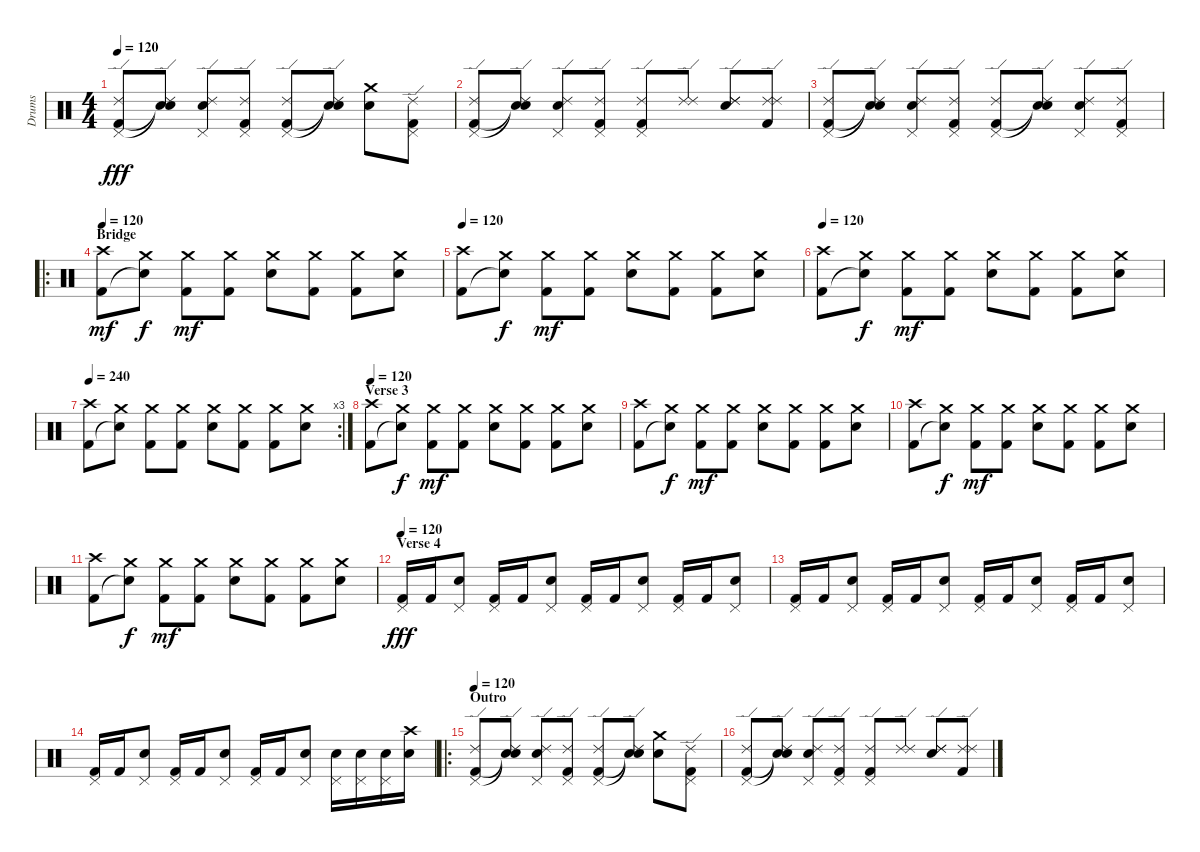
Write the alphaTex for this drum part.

\track ("Drums" "Drums") {instrument percussion}
\staff {score}
\articulation defaults
\ts (4 4)
\tempo 120
\clef neutral
\ks c
("Kick (hit) 2" "Pedal Hi-Hat (hit)" "Ride (edge) 2").8{dy fff} ("Snare (hit) 2"{t} "Snare (hit)"{t} "Ride (edge) 2").8 ("Snare (hit) 2" "Pedal Hi-Hat (hit)" "Ride (edge) 2").8 ("Kick (hit) 2" "Pedal Hi-Hat (hit)" "Ride (edge) 2").8 ("Kick (hit) 2" "Pedal Hi-Hat (hit)" "Ride (edge) 2").8 ("Snare (hit) 2"{t} "Snare (hit)"{t} "Ride (edge) 2").8 ("Snare (hit) 2" "Crash medium (hit)").8 ("Kick (hit) 2" "Pedal Hi-Hat (hit)" "Ride (edge) 2").8 |
("Kick (hit) 2" "Pedal Hi-Hat (hit)" "Ride (edge) 2").8 ("Snare (hit) 2"{t} "Snare (hit)"{t} "Ride (edge) 2").8 ("Snare (hit) 2" "Pedal Hi-Hat (hit)" "Ride (edge) 2").8 ("Kick (hit) 2" "Pedal Hi-Hat (hit)" "Ride (edge) 2").8 ("Kick (hit) 2" "Pedal Hi-Hat (hit)" "Ride (edge) 2").8 ("Ride (edge) 2" "Ride (edge) 2").8 ("Snare (hit) 2" "Ride (edge) 2" "Ride (edge) 2").8 ("Kick (hit) 2" "Ride (edge) 2" "Ride (edge) 2").8 |
("Kick (hit) 2" "Pedal Hi-Hat (hit)" "Ride (edge) 2").8 ("Snare (hit) 2"{t} "Snare (hit)"{t} "Ride (edge) 2").8 ("Snare (hit) 2" "Pedal Hi-Hat (hit)" "Ride (edge) 2").8 ("Kick (hit) 2" "Pedal Hi-Hat (hit)" "Ride (edge) 2").8 ("Kick (hit) 2" "Pedal Hi-Hat (hit)" "Ride (edge) 2").8 ("Snare (hit) 2"{t} "Snare (hit)"{t} "Ride (edge) 2").8 ("Snare (hit) 2" "Pedal Hi-Hat (hit)" "Ride (edge) 2").8 ("Kick (hit) 2" "Pedal Hi-Hat (hit)" "Ride (edge) 2").8 |
\ro
\section ("" "Bridge")
\tempo 120
("Kick (hit) 2" "Crash high (hit)").8{dy mf} ("Snare (hit)"{t} "Crash medium (hit)").8{dy f} ("Kick (hit) 2" "Crash medium (hit)").8{dy mf} ("Kick (hit) 2" "Crash medium (hit)").8 ("Snare (hit) 2" "Crash medium (hit)").8 ("Kick (hit) 2" "Crash medium (hit)").8 ("Kick (hit) 2" "Crash medium (hit)").8 ("Snare (hit) 2" "Crash medium (hit)").8 |
\tempo 120
("Kick (hit) 2" "Crash high (hit)").8 ("Snare (hit)"{t} "Crash medium (hit)").8{dy f} ("Kick (hit) 2" "Crash medium (hit)").8{dy mf} ("Kick (hit) 2" "Crash medium (hit)").8 ("Snare (hit) 2" "Crash medium (hit)").8 ("Kick (hit) 2" "Crash medium (hit)").8 ("Kick (hit) 2" "Crash medium (hit)").8 ("Snare (hit) 2" "Crash medium (hit)").8 |
\tempo 120
("Kick (hit) 2" "Crash high (hit)").8 ("Snare (hit)"{t} "Crash medium (hit)").8{dy f} ("Kick (hit) 2" "Crash medium (hit)").8{dy mf} ("Kick (hit) 2" "Crash medium (hit)").8 ("Snare (hit) 2" "Crash medium (hit)").8 ("Kick (hit) 2" "Crash medium (hit)").8 ("Kick (hit) 2" "Crash medium (hit)").8 ("Snare (hit) 2" "Crash medium (hit)").8 |
\rc 3
\tempo 240
("Kick (hit) 2" "Crash high (hit)").8 ("Snare (hit)"{t} "Crash medium (hit)").8 ("Kick (hit) 2" "Crash medium (hit)").8 ("Kick (hit) 2" "Crash medium (hit)").8 ("Snare (hit) 2" "Crash medium (hit)").8 ("Kick (hit) 2" "Crash medium (hit)").8 ("Kick (hit) 2" "Crash medium (hit)").8 ("Snare (hit) 2" "Crash medium (hit)").8 |
\section ("" "Verse 3")
\tempo 240
\tempo 120
("Kick (hit) 2" "Crash high (hit)").8 ("Snare (hit)"{t} "Crash medium (hit)").8{dy f} ("Kick (hit) 2" "Crash medium (hit)").8{dy mf} ("Kick (hit) 2" "Crash medium (hit)").8 ("Snare (hit) 2" "Crash medium (hit)").8 ("Kick (hit) 2" "Crash medium (hit)").8 ("Kick (hit) 2" "Crash medium (hit)").8 ("Snare (hit) 2" "Crash medium (hit)").8 |
("Kick (hit) 2" "Crash high (hit)").8 ("Snare (hit)"{t} "Crash medium (hit)").8{dy f} ("Kick (hit) 2" "Crash medium (hit)").8{dy mf} ("Kick (hit) 2" "Crash medium (hit)").8 ("Snare (hit) 2" "Crash medium (hit)").8 ("Kick (hit) 2" "Crash medium (hit)").8 ("Kick (hit) 2" "Crash medium (hit)").8 ("Snare (hit) 2" "Crash medium (hit)").8 |
("Kick (hit) 2" "Crash high (hit)").8 ("Snare (hit)"{t} "Crash medium (hit)").8{dy f} ("Kick (hit) 2" "Crash medium (hit)").8{dy mf} ("Kick (hit) 2" "Crash medium (hit)").8 ("Snare (hit) 2" "Crash medium (hit)").8 ("Kick (hit) 2" "Crash medium (hit)").8 ("Kick (hit) 2" "Crash medium (hit)").8 ("Snare (hit) 2" "Crash medium (hit)").8 |
("Kick (hit) 2" "Crash high (hit)").8 ("Snare (hit)"{t} "Crash medium (hit)").8{dy f} ("Kick (hit) 2" "Crash medium (hit)").8{dy mf} ("Kick (hit) 2" "Crash medium (hit)").8 ("Snare (hit) 2" "Crash medium (hit)").8 ("Kick (hit) 2" "Crash medium (hit)").8 ("Kick (hit) 2" "Crash medium (hit)").8 ("Snare (hit) 2" "Crash medium (hit)").8 |
\section ("" "Verse 4")
\tempo 120
("Kick (hit) 2" "Pedal Hi-Hat (hit)").16{dy fff} "Kick (hit) 2".16 ("Snare (hit) 2" "Pedal Hi-Hat (hit)").8 ("Kick (hit) 2" "Pedal Hi-Hat (hit)").16 "Kick (hit) 2".16 ("Snare (hit) 2" "Pedal Hi-Hat (hit)").8 ("Kick (hit) 2" "Pedal Hi-Hat (hit)").16 "Kick (hit) 2".16 ("Snare (hit) 2" "Pedal Hi-Hat (hit)").8 ("Kick (hit) 2" "Pedal Hi-Hat (hit)").16 "Kick (hit) 2".16 ("Snare (hit) 2" "Pedal Hi-Hat (hit)").8 |
("Kick (hit) 2" "Pedal Hi-Hat (hit)").16 "Kick (hit) 2".16 ("Snare (hit) 2" "Pedal Hi-Hat (hit)").8 ("Kick (hit) 2" "Pedal Hi-Hat (hit)").16 "Kick (hit) 2".16 ("Snare (hit) 2" "Pedal Hi-Hat (hit)").8 ("Kick (hit) 2" "Pedal Hi-Hat (hit)").16 "Kick (hit) 2".16 ("Snare (hit) 2" "Pedal Hi-Hat (hit)").8 ("Kick (hit) 2" "Pedal Hi-Hat (hit)").16 "Kick (hit) 2".16 ("Snare (hit) 2" "Pedal Hi-Hat (hit)").8 |
("Kick (hit) 2" "Pedal Hi-Hat (hit)").16 "Kick (hit) 2".16 ("Snare (hit) 2" "Pedal Hi-Hat (hit)").8 ("Kick (hit) 2" "Pedal Hi-Hat (hit)").16 "Kick (hit) 2".16 ("Snare (hit) 2" "Pedal Hi-Hat (hit)").8 ("Kick (hit) 2" "Pedal Hi-Hat (hit)").16 "Kick (hit) 2".16 ("Snare (hit) 2" "Pedal Hi-Hat (hit)").8 ("Snare (hit) 2" "Pedal Hi-Hat (hit)").16 ("Snare (hit) 2" "Pedal Hi-Hat (hit)").16 ("Snare (hit) 2" "Pedal Hi-Hat (hit)").16 ("Snare (hit) 2" "Crash high (hit)").16 |
\ro
\section ("" "Outro")
\tempo 120
("Kick (hit) 2" "Pedal Hi-Hat (hit)" "Ride (edge) 2").8 ("Snare (hit) 2"{t} "Snare (hit)"{t} "Ride (edge) 2").8 ("Snare (hit) 2" "Pedal Hi-Hat (hit)" "Ride (edge) 2").8 ("Kick (hit) 2" "Pedal Hi-Hat (hit)" "Ride (edge) 2").8 ("Kick (hit) 2" "Pedal Hi-Hat (hit)" "Ride (edge) 2").8 ("Snare (hit) 2"{t} "Snare (hit)"{t} "Ride (edge) 2").8 ("Snare (hit) 2" "Crash medium (hit)").8 ("Kick (hit) 2" "Pedal Hi-Hat (hit)" "Ride (edge) 2").8 |
("Kick (hit) 2" "Pedal Hi-Hat (hit)" "Ride (edge) 2").8 ("Snare (hit) 2"{t} "Snare (hit)"{t} "Ride (edge) 2").8 ("Snare (hit) 2" "Pedal Hi-Hat (hit)" "Ride (edge) 2").8 ("Kick (hit) 2" "Pedal Hi-Hat (hit)" "Ride (edge) 2").8 ("Kick (hit) 2" "Pedal Hi-Hat (hit)" "Ride (edge) 2").8 ("Ride (edge) 2" "Ride (edge) 2").8 ("Snare (hit) 2" "Ride (edge) 2" "Ride (edge) 2").8 ("Kick (hit) 2" "Ride (edge) 2" "Ride (edge) 2").8
